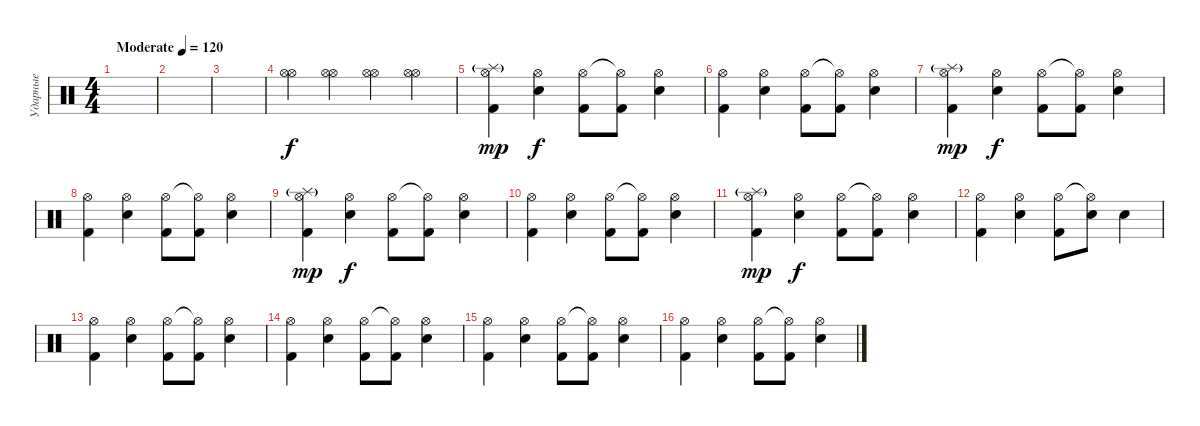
\track ("Ударные" "Ударные") {instrument percussion}
\staff {score}
\articulation defaults
\ts (4 4)
\tempo (120 "Moderate")
\clef neutral
\ks c
|
|
|
("Hi-Hat (open)" "Hi-Hat (open)").4 ("Hi-Hat (open)" "Hi-Hat (open)").4 ("Hi-Hat (open)" "Hi-Hat (open)").4 ("Hi-Hat (open)" "Hi-Hat (open)").4 |
("Kick (hit) 2" "Hi-Hat (open)" "Splash (hit)"{g}).4{dy mp} ("Electric Snare (hit)" "Hi-Hat (open)").4{dy f} ("Kick (hit) 2" "Hi-Hat (open)").8 ("Kick (hit) 2" "Hi-Hat (open)"{t}).8 ("Electric Snare (hit)" "Hi-Hat (open)").4 |
("Kick (hit) 2" "Hi-Hat (open)").4 ("Electric Snare (hit)" "Hi-Hat (open)").4 ("Kick (hit) 2" "Hi-Hat (open)").8 ("Kick (hit) 2" "Hi-Hat (open)"{t}).8 ("Electric Snare (hit)" "Hi-Hat (open)").4 |
("Kick (hit) 2" "Hi-Hat (open)" "Splash (hit)"{g}).4{dy mp} ("Electric Snare (hit)" "Hi-Hat (open)").4{dy f} ("Kick (hit) 2" "Hi-Hat (open)").8 ("Kick (hit) 2" "Hi-Hat (open)"{t}).8 ("Electric Snare (hit)" "Hi-Hat (open)").4 |
("Kick (hit) 2" "Hi-Hat (open)").4 ("Electric Snare (hit)" "Hi-Hat (open)").4 ("Kick (hit) 2" "Hi-Hat (open)").8 ("Kick (hit) 2" "Hi-Hat (open)"{t}).8 ("Electric Snare (hit)" "Hi-Hat (open)").4 |
("Kick (hit) 2" "Hi-Hat (open)" "Splash (hit)"{g}).4{dy mp} ("Electric Snare (hit)" "Hi-Hat (open)").4{dy f} ("Kick (hit) 2" "Hi-Hat (open)").8 ("Kick (hit) 2" "Hi-Hat (open)"{t}).8 ("Electric Snare (hit)" "Hi-Hat (open)").4 |
("Kick (hit) 2" "Hi-Hat (open)").4 ("Electric Snare (hit)" "Hi-Hat (open)").4 ("Kick (hit) 2" "Hi-Hat (open)").8 ("Kick (hit) 2" "Hi-Hat (open)"{t}).8 ("Electric Snare (hit)" "Hi-Hat (open)").4 |
("Kick (hit) 2" "Hi-Hat (open)" "Splash (hit)"{g}).4{dy mp} ("Electric Snare (hit)" "Hi-Hat (open)").4{dy f} ("Kick (hit) 2" "Hi-Hat (open)").8 ("Kick (hit) 2" "Hi-Hat (open)"{t}).8 ("Electric Snare (hit)" "Hi-Hat (open)").4 |
("Kick (hit) 2" "Hi-Hat (open)").4 ("Electric Snare (hit)" "Hi-Hat (open)").4 ("Kick (hit) 2" "Hi-Hat (open)").8 ("Electric Snare (hit)" "Hi-Hat (open)"{t}).8 "Electric Snare (hit)".4 |
("Kick (hit) 2" "Hi-Hat (open)").4 ("Electric Snare (hit)" "Hi-Hat (open)").4 ("Kick (hit) 2" "Hi-Hat (open)").8 ("Kick (hit) 2" "Hi-Hat (open)"{t}).8 ("Electric Snare (hit)" "Hi-Hat (open)").4 |
("Kick (hit) 2" "Hi-Hat (open)").4 ("Electric Snare (hit)" "Hi-Hat (open)").4 ("Kick (hit) 2" "Hi-Hat (open)").8 ("Kick (hit) 2" "Hi-Hat (open)"{t}).8 ("Electric Snare (hit)" "Hi-Hat (open)").4 |
("Kick (hit) 2" "Hi-Hat (open)").4 ("Electric Snare (hit)" "Hi-Hat (open)").4 ("Kick (hit) 2" "Hi-Hat (open)").8 ("Kick (hit) 2" "Hi-Hat (open)"{t}).8 ("Electric Snare (hit)" "Hi-Hat (open)").4 |
("Kick (hit) 2" "Hi-Hat (open)").4 ("Electric Snare (hit)" "Hi-Hat (open)").4 ("Kick (hit) 2" "Hi-Hat (open)").8 ("Kick (hit) 2" "Hi-Hat (open)"{t}).8 ("Electric Snare (hit)" "Hi-Hat (open)").4
